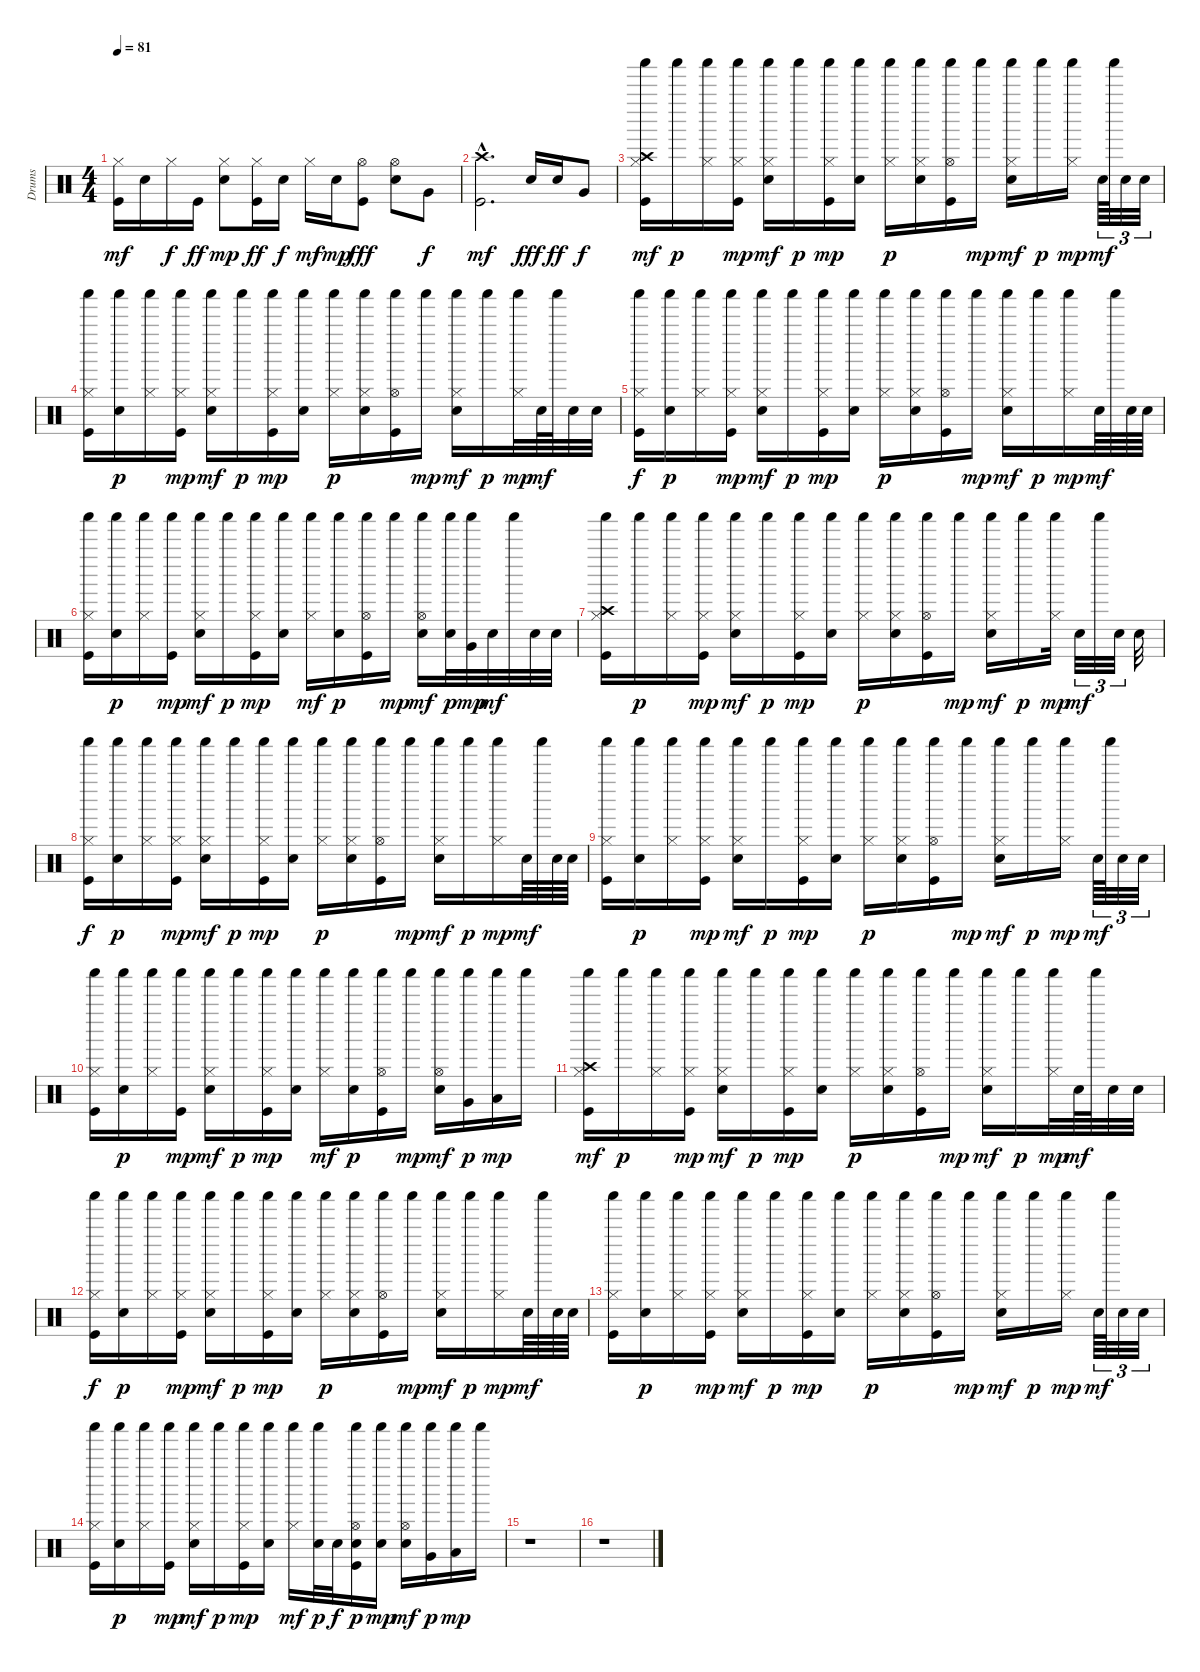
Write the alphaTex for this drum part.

\track ("Drums" "Drums") {instrument percussion}
\staff {score}
\articulation defaults
\ts (4 4)
\tempo 81
\clef neutral
\ks c
("Kick (hit)" "Hi-Hat (closed)").16{dy mf} "Snare (hit) 2".16 "Hi-Hat (closed)".16{dy f} "Kick (hit)".16{dy ff} ("Snare (hit) 2" "Hi-Hat (closed)").8{dy mp} ("Kick (hit)" "Hi-Hat (closed)").16{dy ff} "Snare (hit) 2".16{dy f} "Hi-Hat (closed)".16{dy mf} "Snare (hit) 2".16{dy mp} ("Kick (hit)" "Hi-Hat (open)").8{dy fff} ("Snare (hit) 2" "Hi-Hat (open)").8 "Very Low Tom (hit)".8{dy f} |
("Kick (hit)"{hac} "Crash high (hit)"{hac}).2{d dy mf} "Snare (hit) 2".16{dy fff} "Snare (hit) 2".16{dy ff} "Very Low Tom (hit)".8{dy f} |
("Kick (hit)" "Crash high (hit)" "Hi-Hat (closed)" "Shaker (hit)").16{dy mf} "Shaker (hit)".16{dy p} ("Hi-Hat (closed)" "Shaker (hit)").16 ("Kick (hit)" "Hi-Hat (closed)" "Shaker (hit)").16{dy mp} ("Snare (hit) 2" "Hi-Hat (closed)" "Shaker (hit)").16{dy mf} "Shaker (hit)".16{dy p} ("Kick (hit)" "Hi-Hat (closed)" "Shaker (hit)").16{dy mp} ("Snare (hit) 2" "Shaker (hit)").16 ("Hi-Hat (closed)" "Shaker (hit)").16{dy p} ("Snare (hit) 2" "Hi-Hat (closed)" "Shaker (hit)").16 ("Kick (hit)" "Hi-Hat (open)" "Shaker (hit)").16 "Shaker (hit)".16{dy mp} ("Snare (hit) 2" "Hi-Hat (closed)" "Shaker (hit)").16{dy mf} "Shaker (hit)".16{dy p} ("Hi-Hat (closed)" "Shaker (hit)").16{dy mp} "Snare (hit) 2".64{tu (3 2) dy mf} "Shaker (hit)".64{tu (3 2)} "Snare (hit) 2".32{tu (3 2)} "Snare (hit) 2".32{tu (3 2)} |
("Kick (hit)" "Hi-Hat (closed)" "Shaker (hit)").16 ("Snare (hit) 2" "Shaker (hit)").16{dy p} ("Hi-Hat (closed)" "Shaker (hit)").16 ("Kick (hit)" "Hi-Hat (closed)" "Shaker (hit)").16{dy mp} ("Snare (hit) 2" "Hi-Hat (closed)" "Shaker (hit)").16{dy mf} "Shaker (hit)".16{dy p} ("Kick (hit)" "Hi-Hat (closed)" "Shaker (hit)").16{dy mp} ("Snare (hit) 2" "Shaker (hit)").16 ("Hi-Hat (closed)" "Shaker (hit)").16{dy p} ("Snare (hit) 2" "Hi-Hat (closed)" "Shaker (hit)").16 ("Kick (hit)" "Hi-Hat (open)" "Shaker (hit)").16 "Shaker (hit)".16{dy mp} ("Snare (hit) 2" "Hi-Hat (closed)" "Shaker (hit)").16{dy mf} "Shaker (hit)".16{dy p} ("Hi-Hat (closed)" "Shaker (hit)").32{dy mp} "Snare (hit) 2".64{dy mf} "Shaker (hit)".64 "Snare (hit) 2".32 "Snare (hit) 2".32 |
("Kick (hit)" "Hi-Hat (closed)" "Shaker (hit)").16{dy f} ("Snare (hit) 2" "Shaker (hit)").16{dy p} ("Hi-Hat (closed)" "Shaker (hit)").16 ("Kick (hit)" "Hi-Hat (closed)" "Shaker (hit)").16{dy mp} ("Snare (hit) 2" "Hi-Hat (closed)" "Shaker (hit)").16{dy mf} "Shaker (hit)".16{dy p} ("Kick (hit)" "Hi-Hat (closed)" "Shaker (hit)").16{dy mp} ("Snare (hit) 2" "Shaker (hit)").16 ("Hi-Hat (closed)" "Shaker (hit)").16{dy p} ("Snare (hit) 2" "Hi-Hat (closed)" "Shaker (hit)").16 ("Kick (hit)" "Hi-Hat (open)" "Shaker (hit)").16 "Shaker (hit)".16{dy mp} ("Snare (hit) 2" "Hi-Hat (closed)" "Shaker (hit)").16{dy mf} "Shaker (hit)".16{dy p} ("Hi-Hat (closed)" "Shaker (hit)").16{dy mp} "Snare (hit) 2".64{dy mf} "Shaker (hit)".64 "Snare (hit) 2".64 "Snare (hit) 2".64 |
("Kick (hit)" "Hi-Hat (closed)" "Shaker (hit)").16 ("Snare (hit) 2" "Shaker (hit)").16{dy p} ("Hi-Hat (closed)" "Shaker (hit)").16 ("Kick (hit)" "Shaker (hit)").16{dy mp} ("Snare (hit) 2" "Hi-Hat (closed)" "Shaker (hit)").16{dy mf} "Shaker (hit)".16{dy p} ("Kick (hit)" "Hi-Hat (closed)" "Shaker (hit)").16{dy mp} ("Snare (hit) 2" "Shaker (hit)").16 ("Hi-Hat (closed)" "Shaker (hit)").16{dy mf} ("Snare (hit) 2" "Shaker (hit)").16{dy p} ("Kick (hit)" "Hi-Hat (open)" "Shaker (hit)").16 "Shaker (hit)".16{dy mp} ("Snare (hit) 2" "Hi-Hat (open)" "Shaker (hit)").16{dy mf} ("Snare (hit) 2" "Shaker (hit)").32{dy p} ("Very Low Tom (hit)" "Shaker (hit)").32{dy mp} "Snare (hit) 2".32{dy mf} "Shaker (hit)".32 "Snare (hit) 2".32 "Snare (hit) 2".32 |
("Kick (hit)" "Crash high (hit)" "Hi-Hat (closed)" "Shaker (hit)").16 "Shaker (hit)".16{dy p} ("Hi-Hat (closed)" "Shaker (hit)").16 ("Kick (hit)" "Hi-Hat (closed)" "Shaker (hit)").16{dy mp} ("Snare (hit) 2" "Hi-Hat (closed)" "Shaker (hit)").16{dy mf} "Shaker (hit)".16{dy p} ("Kick (hit)" "Hi-Hat (closed)" "Shaker (hit)").16{dy mp} ("Snare (hit) 2" "Shaker (hit)").16 ("Hi-Hat (closed)" "Shaker (hit)").16{dy p} ("Snare (hit) 2" "Hi-Hat (closed)" "Shaker (hit)").16 ("Kick (hit)" "Hi-Hat (open)" "Shaker (hit)").16 "Shaker (hit)".16{dy mp} ("Snare (hit) 2" "Hi-Hat (closed)" "Shaker (hit)").16{dy mf} "Shaker (hit)".16{dy p} ("Hi-Hat (closed)" "Shaker (hit)").32{dy mp} "Snare (hit) 2".32{tu (3 2) dy mf} "Shaker (hit)".32{tu (3 2)} "Snare (hit) 2".32{tu (3 2)} "Snare (hit) 2".32 |
("Kick (hit)" "Hi-Hat (closed)" "Shaker (hit)").16{dy f} ("Snare (hit) 2" "Shaker (hit)").16{dy p} ("Hi-Hat (closed)" "Shaker (hit)").16 ("Kick (hit)" "Hi-Hat (closed)" "Shaker (hit)").16{dy mp} ("Snare (hit) 2" "Hi-Hat (closed)" "Shaker (hit)").16{dy mf} "Shaker (hit)".16{dy p} ("Kick (hit)" "Hi-Hat (closed)" "Shaker (hit)").16{dy mp} ("Snare (hit) 2" "Shaker (hit)").16 ("Hi-Hat (closed)" "Shaker (hit)").16{dy p} ("Snare (hit) 2" "Hi-Hat (closed)" "Shaker (hit)").16 ("Kick (hit)" "Hi-Hat (open)" "Shaker (hit)").16 "Shaker (hit)".16{dy mp} ("Snare (hit) 2" "Hi-Hat (closed)" "Shaker (hit)").16{dy mf} "Shaker (hit)".16{dy p} ("Hi-Hat (closed)" "Shaker (hit)").16{dy mp} "Snare (hit) 2".64{dy mf} "Shaker (hit)".64 "Snare (hit) 2".64 "Snare (hit) 2".64 |
("Kick (hit)" "Hi-Hat (closed)" "Shaker (hit)").16 ("Snare (hit) 2" "Shaker (hit)").16{dy p} ("Hi-Hat (closed)" "Shaker (hit)").16 ("Kick (hit)" "Hi-Hat (closed)" "Shaker (hit)").16{dy mp} ("Snare (hit) 2" "Hi-Hat (closed)" "Shaker (hit)").16{dy mf} "Shaker (hit)".16{dy p} ("Kick (hit)" "Hi-Hat (closed)" "Shaker (hit)").16{dy mp} ("Snare (hit) 2" "Shaker (hit)").16 ("Hi-Hat (closed)" "Shaker (hit)").16{dy p} ("Snare (hit) 2" "Hi-Hat (closed)" "Shaker (hit)").16 ("Kick (hit)" "Hi-Hat (open)" "Shaker (hit)").16 "Shaker (hit)".16{dy mp} ("Snare (hit) 2" "Hi-Hat (closed)" "Shaker (hit)").16{dy mf} "Shaker (hit)".16{dy p} ("Hi-Hat (closed)" "Shaker (hit)").16{dy mp} "Snare (hit) 2".64{tu (3 2) dy mf} "Shaker (hit)".64{tu (3 2)} "Snare (hit) 2".32{tu (3 2)} "Snare (hit) 2".32{tu (3 2)} |
("Kick (hit)" "Hi-Hat (closed)" "Shaker (hit)").16 ("Snare (hit) 2" "Shaker (hit)").16{dy p} ("Hi-Hat (closed)" "Shaker (hit)").16 ("Kick (hit)" "Shaker (hit)").16{dy mp} ("Snare (hit) 2" "Hi-Hat (closed)" "Shaker (hit)").16{dy mf} "Shaker (hit)".16{dy p} ("Kick (hit)" "Hi-Hat (closed)" "Shaker (hit)").16{dy mp} ("Snare (hit) 2" "Shaker (hit)").16 ("Hi-Hat (closed)" "Shaker (hit)").16{dy mf} ("Snare (hit) 2" "Shaker (hit)").16{dy p} ("Kick (hit)" "Hi-Hat (open)" "Shaker (hit)").16 "Shaker (hit)".16{dy mp} ("Snare (hit) 2" "Hi-Hat (open)" "Shaker (hit)").16{dy mf} ("Very Low Tom (hit)" "Shaker (hit)").16{dy p} ("Low Floor Tom (hit)" "Shaker (hit)").16{dy mp} "Shaker (hit)".16 |
("Kick (hit)" "Crash high (hit)" "Hi-Hat (closed)" "Shaker (hit)").16{dy mf} "Shaker (hit)".16{dy p} ("Hi-Hat (closed)" "Shaker (hit)").16 ("Kick (hit)" "Hi-Hat (closed)" "Shaker (hit)").16{dy mp} ("Snare (hit) 2" "Hi-Hat (closed)" "Shaker (hit)").16{dy mf} "Shaker (hit)".16{dy p} ("Kick (hit)" "Hi-Hat (closed)" "Shaker (hit)").16{dy mp} ("Snare (hit) 2" "Shaker (hit)").16 ("Hi-Hat (closed)" "Shaker (hit)").16{dy p} ("Snare (hit) 2" "Hi-Hat (closed)" "Shaker (hit)").16 ("Kick (hit)" "Hi-Hat (open)" "Shaker (hit)").16 "Shaker (hit)".16{dy mp} ("Snare (hit) 2" "Hi-Hat (closed)" "Shaker (hit)").16{dy mf} "Shaker (hit)".16{dy p} ("Hi-Hat (closed)" "Shaker (hit)").32{dy mp} "Snare (hit) 2".64{dy mf} "Shaker (hit)".64 "Snare (hit) 2".32 "Snare (hit) 2".32 |
("Kick (hit)" "Hi-Hat (closed)" "Shaker (hit)").16{dy f} ("Snare (hit) 2" "Shaker (hit)").16{dy p} ("Hi-Hat (closed)" "Shaker (hit)").16 ("Kick (hit)" "Hi-Hat (closed)" "Shaker (hit)").16{dy mp} ("Snare (hit) 2" "Hi-Hat (closed)" "Shaker (hit)").16{dy mf} "Shaker (hit)".16{dy p} ("Kick (hit)" "Hi-Hat (closed)" "Shaker (hit)").16{dy mp} ("Snare (hit) 2" "Shaker (hit)").16 ("Hi-Hat (closed)" "Shaker (hit)").16{dy p} ("Snare (hit) 2" "Hi-Hat (closed)" "Shaker (hit)").16 ("Kick (hit)" "Hi-Hat (open)" "Shaker (hit)").16 "Shaker (hit)".16{dy mp} ("Snare (hit) 2" "Hi-Hat (closed)" "Shaker (hit)").16{dy mf} "Shaker (hit)".16{dy p} ("Hi-Hat (closed)" "Shaker (hit)").16{dy mp} "Snare (hit) 2".64{dy mf} "Shaker (hit)".64 "Snare (hit) 2".64 "Snare (hit) 2".64 |
("Kick (hit)" "Hi-Hat (closed)" "Shaker (hit)").16 ("Snare (hit) 2" "Shaker (hit)").16{dy p} ("Hi-Hat (closed)" "Shaker (hit)").16 ("Kick (hit)" "Hi-Hat (closed)" "Shaker (hit)").16{dy mp} ("Snare (hit) 2" "Hi-Hat (closed)" "Shaker (hit)").16{dy mf} "Shaker (hit)".16{dy p} ("Kick (hit)" "Hi-Hat (closed)" "Shaker (hit)").16{dy mp} ("Snare (hit) 2" "Shaker (hit)").16 ("Hi-Hat (closed)" "Shaker (hit)").16{dy p} ("Snare (hit) 2" "Hi-Hat (closed)" "Shaker (hit)").16 ("Kick (hit)" "Hi-Hat (open)" "Shaker (hit)").16 "Shaker (hit)".16{dy mp} ("Snare (hit) 2" "Hi-Hat (closed)" "Shaker (hit)").16{dy mf} "Shaker (hit)".16{dy p} ("Hi-Hat (closed)" "Shaker (hit)").16{dy mp} "Snare (hit) 2".64{tu (3 2) dy mf} "Shaker (hit)".64{tu (3 2)} "Snare (hit) 2".32{tu (3 2)} "Snare (hit) 2".32{tu (3 2)} |
("Kick (hit)" "Hi-Hat (closed)" "Shaker (hit)").16 ("Snare (hit) 2" "Shaker (hit)").16{dy p} ("Hi-Hat (closed)" "Shaker (hit)").16 ("Kick (hit)" "Shaker (hit)").16{dy mp} ("Snare (hit) 2" "Hi-Hat (closed)" "Shaker (hit)").16{dy mf} "Shaker (hit)".16{dy p} ("Kick (hit)" "Hi-Hat (closed)" "Shaker (hit)").16{dy mp} ("Snare (hit) 2" "Shaker (hit)").16 ("Hi-Hat (closed)" "Shaker (hit)").16{dy mf} ("Snare (hit) 2" "Shaker (hit)").32{dy p} "Snare (hit) 2".32{dy f} ("Kick (hit)" "Snare (hit) 2" "Hi-Hat (open)" "Shaker (hit)").16{dy p} ("Snare (hit) 2" "Shaker (hit)").16{dy mp} ("Snare (hit) 2" "Hi-Hat (open)" "Shaker (hit)").16{dy mf} ("Very Low Tom (hit)" "Shaker (hit)").16{dy p} ("Low Floor Tom (hit)" "Shaker (hit)").16{dy mp} "Shaker (hit)".16 |
r.1 |
r.1
